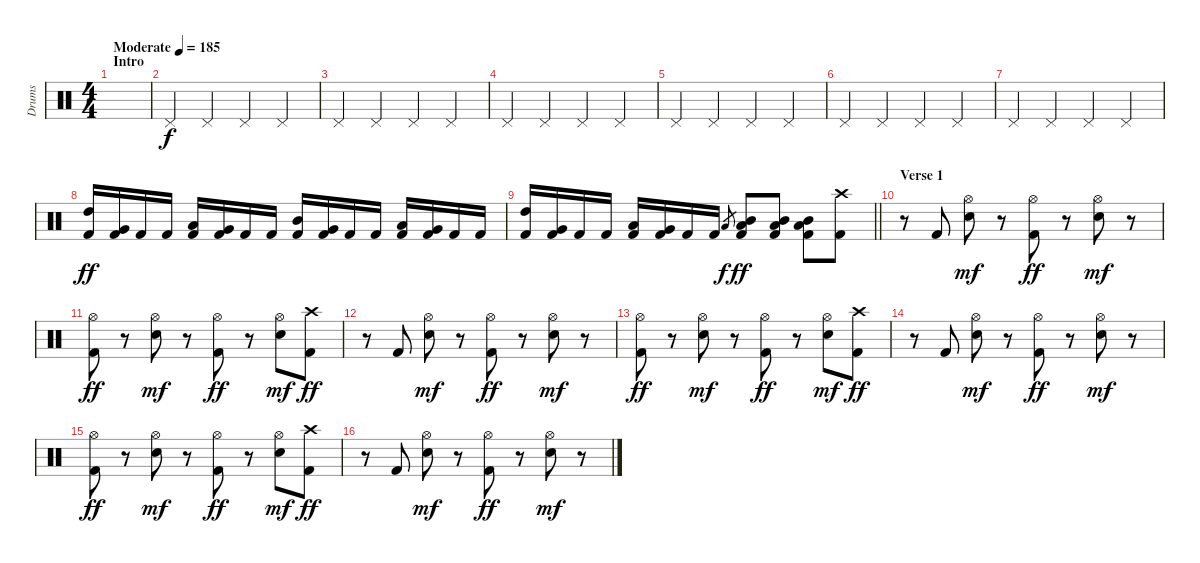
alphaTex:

\track ("Drums" "Drums") {instrument percussion}
\staff {score}
\articulation defaults
\ts (4 4)
\section ("" "Intro")
\tempo (185 "Moderate")
\clef neutral
\ks c
|
"Pedal Hi-Hat (hit)".4 "Pedal Hi-Hat (hit)".4 "Pedal Hi-Hat (hit)".4 "Pedal Hi-Hat (hit)".4 |
"Pedal Hi-Hat (hit)".4 "Pedal Hi-Hat (hit)".4 "Pedal Hi-Hat (hit)".4 "Pedal Hi-Hat (hit)".4 |
"Pedal Hi-Hat (hit)".4 "Pedal Hi-Hat (hit)".4 "Pedal Hi-Hat (hit)".4 "Pedal Hi-Hat (hit)".4 |
"Pedal Hi-Hat (hit)".4 "Pedal Hi-Hat (hit)".4 "Pedal Hi-Hat (hit)".4 "Pedal Hi-Hat (hit)".4 |
"Pedal Hi-Hat (hit)".4 "Pedal Hi-Hat (hit)".4 "Pedal Hi-Hat (hit)".4 "Pedal Hi-Hat (hit)".4 |
"Pedal Hi-Hat (hit)".4 "Pedal Hi-Hat (hit)".4 "Pedal Hi-Hat (hit)".4 "Pedal Hi-Hat (hit)".4 |
("High Tom (hit)" "Kick (hit) 2").16{dy ff} ("Very Low Tom (hit)" "Kick (hit) 2").16 "Kick (hit) 2".16 "Kick (hit) 2".16 ("Low Tom (hit)" "Kick (hit) 2").16 ("Very Low Tom (hit)" "Kick (hit) 2").16 "Kick (hit) 2".16 "Kick (hit) 2".16 ("Mid Tom (hit)" "Kick (hit) 2").16 ("Very Low Tom (hit)" "Kick (hit) 2").16 "Kick (hit) 2".16 "Kick (hit) 2".16 ("Low Tom (hit)" "Kick (hit) 2").16 ("Very Low Tom (hit)" "Kick (hit) 2").16 "Kick (hit) 2".16 "Kick (hit) 2".16 |
\barLineRight lightlight
("High Tom (hit)" "Kick (hit) 2").16 ("Very Low Tom (hit)" "Kick (hit) 2").16 "Kick (hit) 2".16 "Kick (hit) 2".16 ("Low Tom (hit)" "Kick (hit) 2").16 ("Very Low Tom (hit)" "Kick (hit) 2").16 "Kick (hit) 2".16 "Kick (hit) 2".16 "Low Tom (hit)".8{gr dy f} ("Mid Tom (hit)" "Low Tom (hit)" "Kick (hit) 2").8{dy ff} ("Mid Tom (hit)" "Low Tom (hit)" "Kick (hit) 2").8 ("Mid Tom (hit)" "Low Tom (hit)" "Kick (hit) 2").8 ("Crash high (hit)" "Kick (hit) 2").8 |
\section ("" "Verse 1")
r.8 "Kick (hit) 2".8 ("Hi-Hat (open)" "Electric Snare (hit)").8{dy mf} r.8 ("Hi-Hat (open)" "Kick (hit) 2").8{dy ff} r.8 ("Hi-Hat (open)" "Electric Snare (hit)").8{dy mf} r.8 |
("Hi-Hat (open)" "Kick (hit) 2").8{dy ff} r.8 ("Hi-Hat (open)" "Electric Snare (hit)").8{dy mf} r.8 ("Hi-Hat (open)" "Kick (hit) 2").8{dy ff} r.8 ("Hi-Hat (open)" "Electric Snare (hit)").8{dy mf} ("Crash high (hit)" "Kick (hit) 2").8{dy ff} |
r.8 "Kick (hit) 2".8 ("Hi-Hat (open)" "Electric Snare (hit)").8{dy mf} r.8 ("Hi-Hat (open)" "Kick (hit) 2").8{dy ff} r.8 ("Hi-Hat (open)" "Electric Snare (hit)").8{dy mf} r.8 |
("Hi-Hat (open)" "Kick (hit) 2").8{dy ff} r.8 ("Hi-Hat (open)" "Electric Snare (hit)").8{dy mf} r.8 ("Hi-Hat (open)" "Kick (hit) 2").8{dy ff} r.8 ("Hi-Hat (open)" "Electric Snare (hit)").8{dy mf} ("Crash high (hit)" "Kick (hit) 2").8{dy ff} |
r.8 "Kick (hit) 2".8 ("Hi-Hat (open)" "Electric Snare (hit)").8{dy mf} r.8 ("Hi-Hat (open)" "Kick (hit) 2").8{dy ff} r.8 ("Hi-Hat (open)" "Electric Snare (hit)").8{dy mf} r.8 |
("Hi-Hat (open)" "Kick (hit) 2").8{dy ff} r.8 ("Hi-Hat (open)" "Electric Snare (hit)").8{dy mf} r.8 ("Hi-Hat (open)" "Kick (hit) 2").8{dy ff} r.8 ("Hi-Hat (open)" "Electric Snare (hit)").8{dy mf} ("Crash high (hit)" "Kick (hit) 2").8{dy ff} |
r.8 "Kick (hit) 2".8 ("Hi-Hat (open)" "Electric Snare (hit)").8{dy mf} r.8 ("Hi-Hat (open)" "Kick (hit) 2").8{dy ff} r.8 ("Hi-Hat (open)" "Electric Snare (hit)").8{dy mf} r.8
